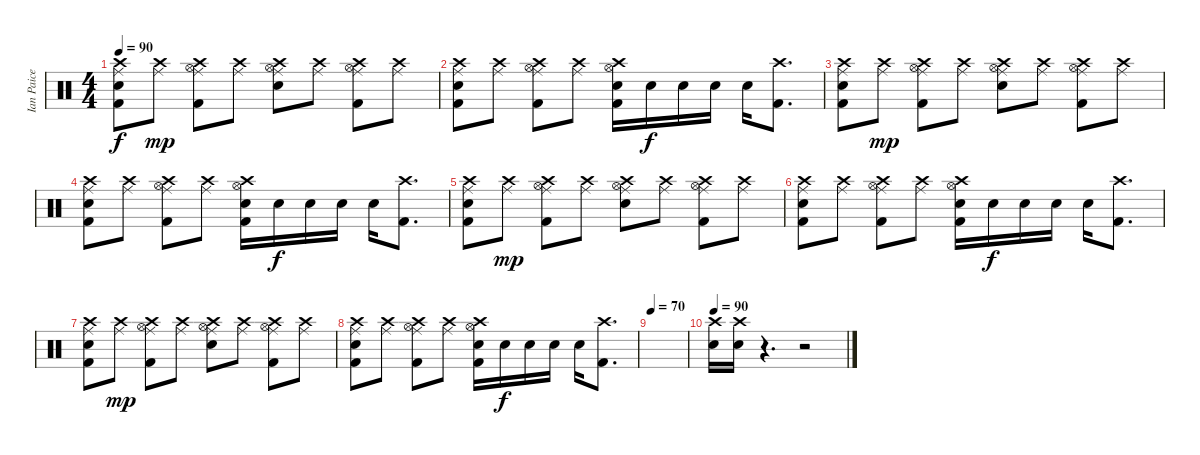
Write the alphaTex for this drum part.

\track ("Ian Paice (Percusion)" "Ian Paice ") {instrument percussion}
\staff {score}
\articulation defaults
\ts (4 4)
\tempo 90
\clef neutral
\ks c
("Kick (hit) 2" "Crash high (hit)" "Ride (middle)" "Electric Snare (hit)").8{dy f} ("Crash high (hit)" "Ride (middle)").8{dy mp} ("Hi-Hat (open)" "Crash high (hit)" "Ride (middle)" "Kick (hit) 2").8 ("Crash high (hit)" "Ride (middle)").8 ("Hi-Hat (open)" "Crash high (hit)" "Ride (middle)" "Electric Snare (hit)").8 ("Crash high (hit)" "Ride (middle)").8 ("Hi-Hat (open)" "Crash high (hit)" "Ride (middle)" "Kick (hit) 2").8 ("Crash high (hit)" "Ride (middle)").8 |
("Kick (hit) 2" "Crash high (hit)" "Ride (middle)" "Electric Snare (hit)").8 ("Crash high (hit)" "Ride (middle)").8 ("Hi-Hat (open)" "Crash high (hit)" "Ride (middle)" "Kick (hit) 2").8 ("Crash high (hit)" "Ride (middle)").8 ("Crash high (hit)" "Hi-Hat (open)" "Kick (hit) 2" "Electric Snare (hit)").16 "Electric Snare (hit)".16{dy f} "Electric Snare (hit)".16 "Electric Snare (hit)".16 "Electric Snare (hit)".16 ("Crash high (hit)" "Kick (hit) 2").8{d} |
("Kick (hit) 2" "Crash high (hit)" "Ride (middle)" "Electric Snare (hit)").8 ("Crash high (hit)" "Ride (middle)").8{dy mp} ("Hi-Hat (open)" "Crash high (hit)" "Ride (middle)" "Kick (hit) 2").8 ("Crash high (hit)" "Ride (middle)").8 ("Hi-Hat (open)" "Crash high (hit)" "Ride (middle)" "Electric Snare (hit)").8 ("Crash high (hit)" "Ride (middle)").8 ("Hi-Hat (open)" "Crash high (hit)" "Ride (middle)" "Kick (hit) 2").8 ("Crash high (hit)" "Ride (middle)").8 |
("Kick (hit) 2" "Crash high (hit)" "Ride (middle)" "Electric Snare (hit)").8 ("Crash high (hit)" "Ride (middle)").8 ("Hi-Hat (open)" "Crash high (hit)" "Ride (middle)" "Kick (hit) 2").8 ("Crash high (hit)" "Ride (middle)").8 ("Crash high (hit)" "Hi-Hat (open)" "Kick (hit) 2" "Electric Snare (hit)").16 "Electric Snare (hit)".16{dy f} "Electric Snare (hit)".16 "Electric Snare (hit)".16 "Electric Snare (hit)".16 ("Crash high (hit)" "Kick (hit) 2").8{d} |
("Kick (hit) 2" "Crash high (hit)" "Ride (middle)" "Electric Snare (hit)").8 ("Crash high (hit)" "Ride (middle)").8{dy mp} ("Hi-Hat (open)" "Crash high (hit)" "Ride (middle)" "Kick (hit) 2").8 ("Crash high (hit)" "Ride (middle)").8 ("Hi-Hat (open)" "Crash high (hit)" "Ride (middle)" "Electric Snare (hit)").8 ("Crash high (hit)" "Ride (middle)").8 ("Hi-Hat (open)" "Crash high (hit)" "Ride (middle)" "Kick (hit) 2").8 ("Crash high (hit)" "Ride (middle)").8 |
("Kick (hit) 2" "Crash high (hit)" "Ride (middle)" "Electric Snare (hit)").8 ("Crash high (hit)" "Ride (middle)").8 ("Hi-Hat (open)" "Crash high (hit)" "Ride (middle)" "Kick (hit) 2").8 ("Crash high (hit)" "Ride (middle)").8 ("Crash high (hit)" "Hi-Hat (open)" "Kick (hit) 2" "Electric Snare (hit)").16 "Electric Snare (hit)".16{dy f} "Electric Snare (hit)".16 "Electric Snare (hit)".16 "Electric Snare (hit)".16 ("Crash high (hit)" "Kick (hit) 2").8{d} |
("Kick (hit) 2" "Crash high (hit)" "Ride (middle)" "Electric Snare (hit)").8 ("Crash high (hit)" "Ride (middle)").8{dy mp} ("Hi-Hat (open)" "Crash high (hit)" "Ride (middle)" "Kick (hit) 2").8 ("Crash high (hit)" "Ride (middle)").8 ("Hi-Hat (open)" "Crash high (hit)" "Ride (middle)" "Electric Snare (hit)").8 ("Crash high (hit)" "Ride (middle)").8 ("Hi-Hat (open)" "Crash high (hit)" "Ride (middle)" "Kick (hit) 2").8 ("Crash high (hit)" "Ride (middle)").8 |
("Kick (hit) 2" "Crash high (hit)" "Ride (middle)" "Electric Snare (hit)").8 ("Crash high (hit)" "Ride (middle)").8 ("Hi-Hat (open)" "Crash high (hit)" "Ride (middle)" "Kick (hit) 2").8 ("Crash high (hit)" "Ride (middle)").8 ("Crash high (hit)" "Hi-Hat (open)" "Kick (hit) 2" "Electric Snare (hit)").16 "Electric Snare (hit)".16{dy f} "Electric Snare (hit)".16 "Electric Snare (hit)".16 "Electric Snare (hit)".16 ("Crash high (hit)" "Kick (hit) 2").8{d} |
\tempo 70
|
\tempo 90
("Electric Snare (hit)" "Crash high (hit)").16 ("Electric Snare (hit)" "Crash high (hit)").16 r.4{d} r.2
